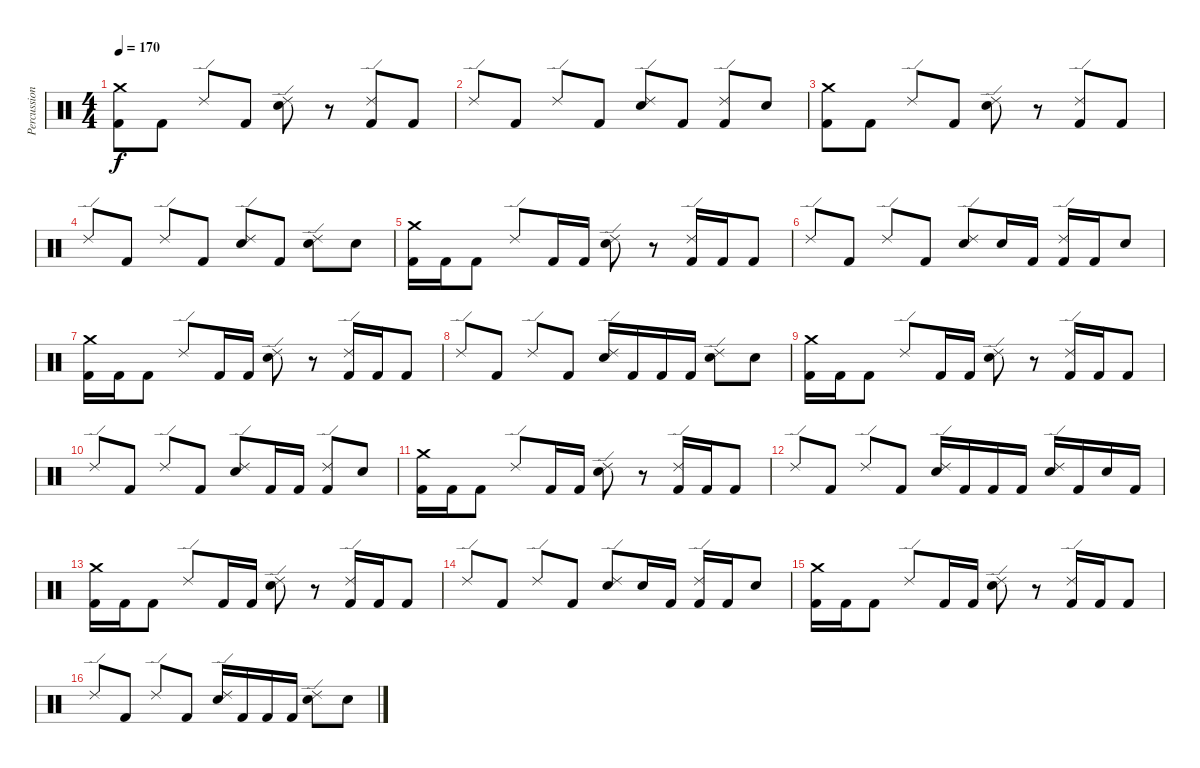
\track ("Percussion" "Percussion") {instrument percussion}
\staff {score}
\articulation defaults
\ts (4 4)
\tempo 170
\clef neutral
\ks c
("Crash medium (hit)" "Kick (hit) 2").8{dy f} "Kick (hit) 2".8 "Ride (edge) 2".8 "Kick (hit) 2".8 ("Ride (edge) 2" "Electric Snare (hit)").8 r.8 ("Ride (edge) 2" "Kick (hit) 2").8 "Kick (hit) 2".8 |
"Ride (edge) 2".8 "Kick (hit) 2".8 "Ride (edge) 2".8 "Kick (hit) 2".8 ("Electric Snare (hit)" "Ride (edge) 2").8 "Kick (hit) 2".8 ("Kick (hit) 2" "Ride (edge) 2").8 "Electric Snare (hit)".8 |
("Crash medium (hit)" "Kick (hit) 2").8 "Kick (hit) 2".8 "Ride (edge) 2".8 "Kick (hit) 2".8 ("Ride (edge) 2" "Electric Snare (hit)").8 r.8 ("Ride (edge) 2" "Kick (hit) 2").8 "Kick (hit) 2".8 |
"Ride (edge) 2".8 "Kick (hit) 2".8 "Ride (edge) 2".8 "Kick (hit) 2".8 ("Electric Snare (hit)" "Ride (edge) 2").8 "Kick (hit) 2".8 ("Electric Snare (hit)" "Ride (edge) 2").8 "Electric Snare (hit)".8 |
("Crash medium (hit)" "Kick (hit) 2").16 "Kick (hit) 2".16 "Kick (hit) 2".8 "Ride (edge) 2".8 "Kick (hit) 2".16 "Kick (hit) 2".16 ("Ride (edge) 2" "Electric Snare (hit)").8 r.8 ("Ride (edge) 2" "Kick (hit) 2").16 "Kick (hit) 2".16 "Kick (hit) 2".8 |
"Ride (edge) 2".8 "Kick (hit) 2".8 "Ride (edge) 2".8 "Kick (hit) 2".8 ("Electric Snare (hit)" "Ride (edge) 2").8 "Electric Snare (hit)".16 "Kick (hit) 2".16 ("Kick (hit) 2" "Ride (edge) 2").16 "Kick (hit) 2".16 "Electric Snare (hit)".8 |
("Crash medium (hit)" "Kick (hit) 2").16 "Kick (hit) 2".16 "Kick (hit) 2".8 "Ride (edge) 2".8 "Kick (hit) 2".16 "Kick (hit) 2".16 ("Ride (edge) 2" "Electric Snare (hit)").8 r.8 ("Ride (edge) 2" "Kick (hit) 2").16 "Kick (hit) 2".16 "Kick (hit) 2".8 |
"Ride (edge) 2".8 "Kick (hit) 2".8 "Ride (edge) 2".8 "Kick (hit) 2".8 ("Electric Snare (hit)" "Ride (edge) 2").16 "Kick (hit) 2".16 "Kick (hit) 2".16 "Kick (hit) 2".16 ("Electric Snare (hit)" "Ride (edge) 2").8 "Electric Snare (hit)".8 |
("Crash medium (hit)" "Kick (hit) 2").16 "Kick (hit) 2".16 "Kick (hit) 2".8 "Ride (edge) 2".8 "Kick (hit) 2".16 "Kick (hit) 2".16 ("Ride (edge) 2" "Electric Snare (hit)").8 r.8 ("Ride (edge) 2" "Kick (hit) 2").16 "Kick (hit) 2".16 "Kick (hit) 2".8 |
"Ride (edge) 2".8 "Kick (hit) 2".8 "Ride (edge) 2".8 "Kick (hit) 2".8 ("Electric Snare (hit)" "Ride (edge) 2").8 "Kick (hit) 2".16 "Kick (hit) 2".16 ("Kick (hit) 2" "Ride (edge) 2").8 "Electric Snare (hit)".8 |
("Crash medium (hit)" "Kick (hit) 2").16 "Kick (hit) 2".16 "Kick (hit) 2".8 "Ride (edge) 2".8 "Kick (hit) 2".16 "Kick (hit) 2".16 ("Ride (edge) 2" "Electric Snare (hit)").8 r.8 ("Ride (edge) 2" "Kick (hit) 2").16 "Kick (hit) 2".16 "Kick (hit) 2".8 |
"Ride (edge) 2".8 "Kick (hit) 2".8 "Ride (edge) 2".8 "Kick (hit) 2".8 ("Electric Snare (hit)" "Ride (edge) 2").16 "Kick (hit) 2".16 "Kick (hit) 2".16 "Kick (hit) 2".16 ("Electric Snare (hit)" "Ride (edge) 2").16 "Kick (hit) 2".16 "Electric Snare (hit)".16 "Kick (hit) 2".16 |
("Crash medium (hit)" "Kick (hit) 2").16 "Kick (hit) 2".16 "Kick (hit) 2".8 "Ride (edge) 2".8 "Kick (hit) 2".16 "Kick (hit) 2".16 ("Ride (edge) 2" "Electric Snare (hit)").8 r.8 ("Ride (edge) 2" "Kick (hit) 2").16 "Kick (hit) 2".16 "Kick (hit) 2".8 |
"Ride (edge) 2".8 "Kick (hit) 2".8 "Ride (edge) 2".8 "Kick (hit) 2".8 ("Electric Snare (hit)" "Ride (edge) 2").8 "Electric Snare (hit)".16 "Kick (hit) 2".16 ("Kick (hit) 2" "Ride (edge) 2").16 "Kick (hit) 2".16 "Electric Snare (hit)".8 |
("Crash medium (hit)" "Kick (hit) 2").16 "Kick (hit) 2".16 "Kick (hit) 2".8 "Ride (edge) 2".8 "Kick (hit) 2".16 "Kick (hit) 2".16 ("Ride (edge) 2" "Electric Snare (hit)").8 r.8 ("Ride (edge) 2" "Kick (hit) 2").16 "Kick (hit) 2".16 "Kick (hit) 2".8 |
"Ride (edge) 2".8 "Kick (hit) 2".8 "Ride (edge) 2".8 "Kick (hit) 2".8 ("Electric Snare (hit)" "Ride (edge) 2").16 "Kick (hit) 2".16 "Kick (hit) 2".16 "Kick (hit) 2".16 ("Electric Snare (hit)" "Ride (edge) 2").8 "Electric Snare (hit)".8
